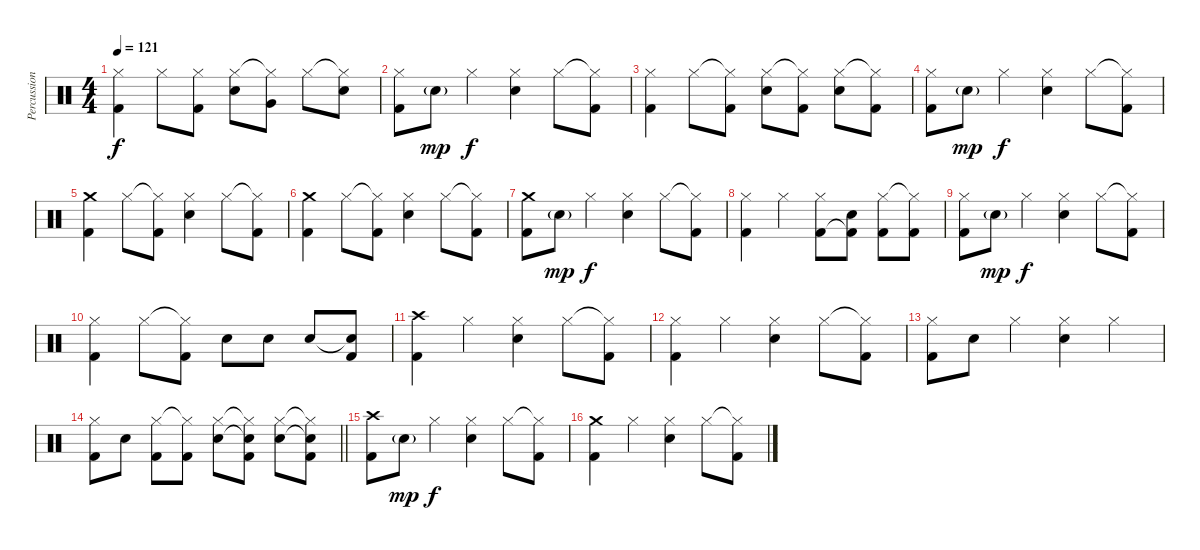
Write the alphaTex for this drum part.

\track ("Percussioni" "Percussion") {instrument percussion}
\staff {score}
\articulation defaults
\ts (4 4)
\tempo 121
\clef neutral
\ks c
("Hi-Hat (closed)" "Kick (hit) 2").4{dy f} "Hi-Hat (closed)".8 ("Hi-Hat (closed)" "Kick (hit) 2").8 ("Hi-Hat (closed)" "Snare (hit) 2").8 ("Hi-Hat (closed)"{t} "Very Low Tom (hit)").8 "Hi-Hat (closed)".8 ("Hi-Hat (closed)"{t} "Snare (hit) 2").8 |
("Hi-Hat (closed)" "Kick (hit) 2").8 "Snare (hit) 2"{g}.8{dy mp} "Hi-Hat (closed)".4{dy f} ("Hi-Hat (closed)" "Snare (hit) 2").4 "Hi-Hat (closed)".8 ("Hi-Hat (closed)"{t} "Kick (hit) 2").8 |
("Hi-Hat (closed)" "Kick (hit) 2").4 "Hi-Hat (closed)".8 ("Hi-Hat (closed)"{t} "Kick (hit) 2").8 ("Hi-Hat (closed)" "Snare (hit) 2").8 ("Hi-Hat (closed)"{t} "Kick (hit) 2").8 ("Hi-Hat (closed)" "Snare (hit) 2").8 ("Hi-Hat (closed)"{t} "Kick (hit) 2").8 |
("Hi-Hat (closed)" "Kick (hit) 2").8 "Snare (hit) 2"{g}.8{dy mp} "Hi-Hat (closed)".4{dy f} ("Hi-Hat (closed)" "Snare (hit) 2").4 "Hi-Hat (closed)".8 ("Hi-Hat (closed)"{t} "Kick (hit) 2").8 |
("Crash medium (hit)" "Kick (hit) 2").4 "Hi-Hat (closed)".8 ("Hi-Hat (closed)"{t} "Kick (hit) 2").8 ("Hi-Hat (closed)" "Snare (hit) 2").4 "Hi-Hat (closed)".8 ("Hi-Hat (closed)"{t} "Kick (hit) 2").8 |
("Crash medium (hit)" "Kick (hit) 2").4 "Hi-Hat (closed)".8 ("Hi-Hat (closed)"{t} "Kick (hit) 2").8 ("Hi-Hat (closed)" "Snare (hit) 2").4 "Hi-Hat (closed)".8 ("Hi-Hat (closed)"{t} "Kick (hit) 2").8 |
("Crash medium (hit)" "Kick (hit) 2").8 "Snare (hit) 2"{g}.8{dy mp} "Hi-Hat (closed)".4{dy f} ("Hi-Hat (closed)" "Snare (hit) 2").4 "Hi-Hat (closed)".8 ("Hi-Hat (closed)"{t} "Kick (hit) 2").8 |
("Hi-Hat (closed)" "Kick (hit) 2").4 "Hi-Hat (closed)".4 ("Hi-Hat (closed)" "Kick (hit) 2").8 ("Snare (hit) 2" "Kick (hit) 2"{t}).8 ("Hi-Hat (closed)" "Kick (hit) 2").8 ("Hi-Hat (closed)"{t} "Kick (hit) 2").8 |
("Hi-Hat (closed)" "Kick (hit) 2").8 "Snare (hit) 2"{g}.8{dy mp} "Hi-Hat (closed)".4{dy f} ("Hi-Hat (closed)" "Snare (hit) 2").4 "Hi-Hat (closed)".8 ("Hi-Hat (closed)"{t} "Kick (hit) 2").8 |
("Hi-Hat (closed)" "Kick (hit) 2").4 "Hi-Hat (closed)".8 ("Hi-Hat (closed)"{t} "Kick (hit) 2").8 "Snare (hit) 2".8 "Snare (hit) 2".8 "Snare (hit) 2".8 ("Snare (hit) 2"{t} "Kick (hit) 2").8 |
("Crash high (hit)" "Kick (hit) 2").4 "Hi-Hat (closed)".4 ("Hi-Hat (closed)" "Snare (hit) 2").4 "Hi-Hat (closed)".8 ("Hi-Hat (closed)"{t} "Kick (hit) 2").8 |
("Hi-Hat (closed)" "Kick (hit) 2").4 "Hi-Hat (closed)".4 ("Hi-Hat (closed)" "Snare (hit) 2").4 "Hi-Hat (closed)".8 ("Hi-Hat (closed)"{t} "Kick (hit) 2").8 |
("Hi-Hat (closed)" "Kick (hit) 2").8 "Snare (hit) 2".8 "Hi-Hat (closed)".4 ("Hi-Hat (closed)" "Snare (hit) 2").4 "Hi-Hat (closed)".4 |
\barLineRight lightlight
("Hi-Hat (closed)" "Kick (hit) 2").8 "Snare (hit) 2".8 ("Hi-Hat (closed)" "Kick (hit) 2").8 ("Hi-Hat (closed)"{t} "Kick (hit) 2").8 ("Hi-Hat (closed)" "Snare (hit) 2").8 ("Hi-Hat (closed)"{t} "Snare (hit) 2"{t} "Kick (hit) 2").8 ("Hi-Hat (closed)" "Snare (hit) 2").8 ("Hi-Hat (closed)"{t} "Snare (hit) 2"{t} "Kick (hit) 2").8 |
("Crash high (hit)" "Kick (hit) 2").8 "Snare (hit) 2"{g}.8{dy mp} "Hi-Hat (closed)".4{dy f} ("Hi-Hat (closed)" "Snare (hit) 2").4 "Hi-Hat (closed)".8 ("Hi-Hat (closed)"{t} "Kick (hit) 2").8 |
("Crash medium (hit)" "Kick (hit) 2").4 "Hi-Hat (closed)".4 ("Hi-Hat (closed)" "Snare (hit) 2").4 "Hi-Hat (closed)".8 ("Hi-Hat (closed)"{t} "Kick (hit) 2").8
